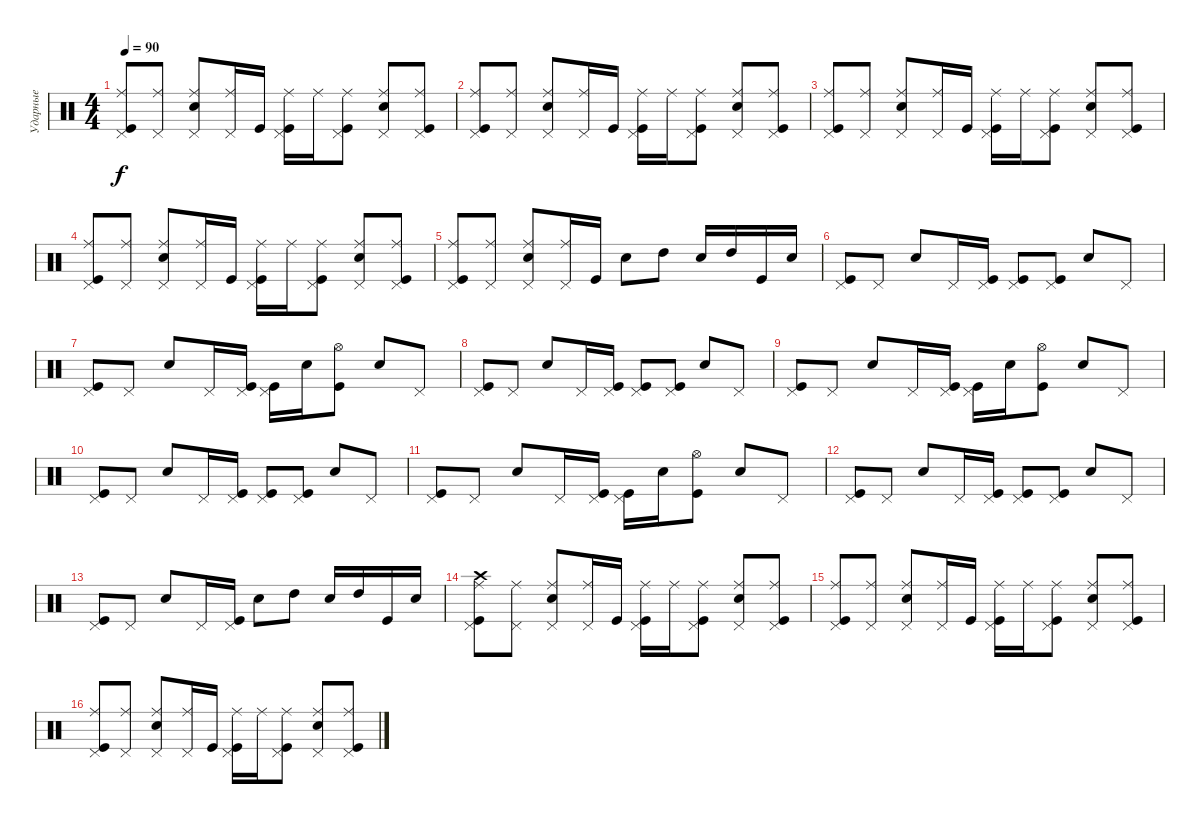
\track ("Ударные" "Ударные") {instrument percussion}
\staff {score}
\articulation defaults
\ts (4 4)
\tempo 90
\clef neutral
\ks c
("Kick (hit)" "Pedal Hi-Hat (hit)" "Ride (middle)").8{dy f} ("Pedal Hi-Hat (hit)" "Ride (middle)").8 ("Electric Snare (hit)" "Pedal Hi-Hat (hit)" "Ride (middle)").8 ("Pedal Hi-Hat (hit)" "Ride (middle)").16 "Kick (hit)".16 ("Kick (hit)" "Pedal Hi-Hat (hit)" "Ride (middle)").16 "Ride (middle)".16 ("Kick (hit)" "Pedal Hi-Hat (hit)" "Ride (middle)").8 ("Electric Snare (hit)" "Pedal Hi-Hat (hit)" "Ride (middle)").8 ("Kick (hit)" "Pedal Hi-Hat (hit)" "Ride (middle)").8 |
("Kick (hit)" "Pedal Hi-Hat (hit)" "Ride (middle)").8 ("Pedal Hi-Hat (hit)" "Ride (middle)").8 ("Electric Snare (hit)" "Pedal Hi-Hat (hit)" "Ride (middle)").8 ("Pedal Hi-Hat (hit)" "Ride (middle)").16 "Kick (hit)".16 ("Kick (hit)" "Pedal Hi-Hat (hit)" "Ride (middle)").16 "Ride (middle)".16 ("Kick (hit)" "Pedal Hi-Hat (hit)" "Ride (middle)").8 ("Electric Snare (hit)" "Pedal Hi-Hat (hit)" "Ride (middle)").8 ("Kick (hit)" "Pedal Hi-Hat (hit)" "Ride (middle)").8 |
("Kick (hit)" "Pedal Hi-Hat (hit)" "Ride (middle)").8 ("Pedal Hi-Hat (hit)" "Ride (middle)").8 ("Electric Snare (hit)" "Pedal Hi-Hat (hit)" "Ride (middle)").8 ("Pedal Hi-Hat (hit)" "Ride (middle)").16 "Kick (hit)".16 ("Kick (hit)" "Pedal Hi-Hat (hit)" "Ride (middle)").16 "Ride (middle)".16 ("Kick (hit)" "Pedal Hi-Hat (hit)" "Ride (middle)").8 ("Electric Snare (hit)" "Pedal Hi-Hat (hit)" "Ride (middle)").8 ("Kick (hit)" "Pedal Hi-Hat (hit)" "Ride (middle)").8 |
("Kick (hit)" "Pedal Hi-Hat (hit)" "Ride (middle)").8 ("Pedal Hi-Hat (hit)" "Ride (middle)").8 ("Electric Snare (hit)" "Pedal Hi-Hat (hit)" "Ride (middle)").8 ("Pedal Hi-Hat (hit)" "Ride (middle)").16 "Kick (hit)".16 ("Kick (hit)" "Pedal Hi-Hat (hit)" "Ride (middle)").16 "Ride (middle)".16 ("Kick (hit)" "Pedal Hi-Hat (hit)" "Ride (middle)").8 ("Electric Snare (hit)" "Pedal Hi-Hat (hit)" "Ride (middle)").8 ("Kick (hit)" "Pedal Hi-Hat (hit)" "Ride (middle)").8 |
("Kick (hit)" "Pedal Hi-Hat (hit)" "Ride (middle)").8 ("Pedal Hi-Hat (hit)" "Ride (middle)").8 ("Electric Snare (hit)" "Pedal Hi-Hat (hit)" "Ride (middle)").8 ("Pedal Hi-Hat (hit)" "Ride (middle)").16 "Kick (hit)".16 "Electric Snare (hit)".8 "High Tom (hit)".8 "Electric Snare (hit)".16 "High Tom (hit)".16 "Kick (hit)".16 "Electric Snare (hit)".16 |
("Kick (hit)" "Pedal Hi-Hat (hit)").8 "Pedal Hi-Hat (hit)".8 "Electric Snare (hit)".8 "Pedal Hi-Hat (hit)".16 ("Kick (hit)" "Pedal Hi-Hat (hit)").16 ("Kick (hit)" "Pedal Hi-Hat (hit)").8 ("Kick (hit)" "Pedal Hi-Hat (hit)").8 "Electric Snare (hit)".8 "Pedal Hi-Hat (hit)".8 |
("Kick (hit)" "Pedal Hi-Hat (hit)").8 "Pedal Hi-Hat (hit)".8 "Electric Snare (hit)".8 "Pedal Hi-Hat (hit)".16 ("Kick (hit)" "Pedal Hi-Hat (hit)").16 ("Kick (hit)" "Pedal Hi-Hat (hit)").16 "Electric Snare (hit)".16 ("Kick (hit)" "Hi-Hat (open)").8 "Electric Snare (hit)".8 "Pedal Hi-Hat (hit)".8 |
("Kick (hit)" "Pedal Hi-Hat (hit)").8 "Pedal Hi-Hat (hit)".8 "Electric Snare (hit)".8 "Pedal Hi-Hat (hit)".16 ("Kick (hit)" "Pedal Hi-Hat (hit)").16 ("Kick (hit)" "Pedal Hi-Hat (hit)").8 ("Kick (hit)" "Pedal Hi-Hat (hit)").8 "Electric Snare (hit)".8 "Pedal Hi-Hat (hit)".8 |
("Kick (hit)" "Pedal Hi-Hat (hit)").8 "Pedal Hi-Hat (hit)".8 "Electric Snare (hit)".8 "Pedal Hi-Hat (hit)".16 ("Kick (hit)" "Pedal Hi-Hat (hit)").16 ("Kick (hit)" "Pedal Hi-Hat (hit)").16 "Electric Snare (hit)".16 ("Kick (hit)" "Hi-Hat (open)").8 "Electric Snare (hit)".8 "Pedal Hi-Hat (hit)".8 |
("Kick (hit)" "Pedal Hi-Hat (hit)").8 "Pedal Hi-Hat (hit)".8 "Electric Snare (hit)".8 "Pedal Hi-Hat (hit)".16 ("Kick (hit)" "Pedal Hi-Hat (hit)").16 ("Kick (hit)" "Pedal Hi-Hat (hit)").8 ("Kick (hit)" "Pedal Hi-Hat (hit)").8 "Electric Snare (hit)".8 "Pedal Hi-Hat (hit)".8 |
("Kick (hit)" "Pedal Hi-Hat (hit)").8 "Pedal Hi-Hat (hit)".8 "Electric Snare (hit)".8 "Pedal Hi-Hat (hit)".16 ("Kick (hit)" "Pedal Hi-Hat (hit)").16 ("Kick (hit)" "Pedal Hi-Hat (hit)").16 "Electric Snare (hit)".16 ("Kick (hit)" "Hi-Hat (open)").8 "Electric Snare (hit)".8 "Pedal Hi-Hat (hit)".8 |
("Kick (hit)" "Pedal Hi-Hat (hit)").8 "Pedal Hi-Hat (hit)".8 "Electric Snare (hit)".8 "Pedal Hi-Hat (hit)".16 ("Kick (hit)" "Pedal Hi-Hat (hit)").16 ("Kick (hit)" "Pedal Hi-Hat (hit)").8 ("Kick (hit)" "Pedal Hi-Hat (hit)").8 "Electric Snare (hit)".8 "Pedal Hi-Hat (hit)".8 |
("Kick (hit)" "Pedal Hi-Hat (hit)").8 "Pedal Hi-Hat (hit)".8 "Electric Snare (hit)".8 "Pedal Hi-Hat (hit)".16 ("Kick (hit)" "Pedal Hi-Hat (hit)").16 "Electric Snare (hit)".8 "High Tom (hit)".8 "Electric Snare (hit)".16 "High Tom (hit)".16 "Kick (hit)".16 "Electric Snare (hit)".16 |
("Kick (hit)" "Crash high (hit)" "Pedal Hi-Hat (hit)" "Ride (middle)").8 ("Pedal Hi-Hat (hit)" "Ride (middle)").8 ("Electric Snare (hit)" "Pedal Hi-Hat (hit)" "Ride (middle)").8 ("Pedal Hi-Hat (hit)" "Ride (middle)").16 "Kick (hit)".16 ("Kick (hit)" "Pedal Hi-Hat (hit)" "Ride (middle)").16 "Ride (middle)".16 ("Kick (hit)" "Pedal Hi-Hat (hit)" "Ride (middle)").8 ("Electric Snare (hit)" "Pedal Hi-Hat (hit)" "Ride (middle)").8 ("Kick (hit)" "Pedal Hi-Hat (hit)" "Ride (middle)").8 |
("Kick (hit)" "Pedal Hi-Hat (hit)" "Ride (middle)").8 ("Pedal Hi-Hat (hit)" "Ride (middle)").8 ("Electric Snare (hit)" "Pedal Hi-Hat (hit)" "Ride (middle)").8 ("Pedal Hi-Hat (hit)" "Ride (middle)").16 "Kick (hit)".16 ("Kick (hit)" "Pedal Hi-Hat (hit)" "Ride (middle)").16 "Ride (middle)".16 ("Kick (hit)" "Pedal Hi-Hat (hit)" "Ride (middle)").8 ("Electric Snare (hit)" "Pedal Hi-Hat (hit)" "Ride (middle)").8 ("Kick (hit)" "Pedal Hi-Hat (hit)" "Ride (middle)").8 |
("Kick (hit)" "Pedal Hi-Hat (hit)" "Ride (middle)").8 ("Pedal Hi-Hat (hit)" "Ride (middle)").8 ("Electric Snare (hit)" "Pedal Hi-Hat (hit)" "Ride (middle)").8 ("Pedal Hi-Hat (hit)" "Ride (middle)").16 "Kick (hit)".16 ("Kick (hit)" "Pedal Hi-Hat (hit)" "Ride (middle)").16 "Ride (middle)".16 ("Kick (hit)" "Pedal Hi-Hat (hit)" "Ride (middle)").8 ("Electric Snare (hit)" "Pedal Hi-Hat (hit)" "Ride (middle)").8 ("Kick (hit)" "Pedal Hi-Hat (hit)" "Ride (middle)").8
